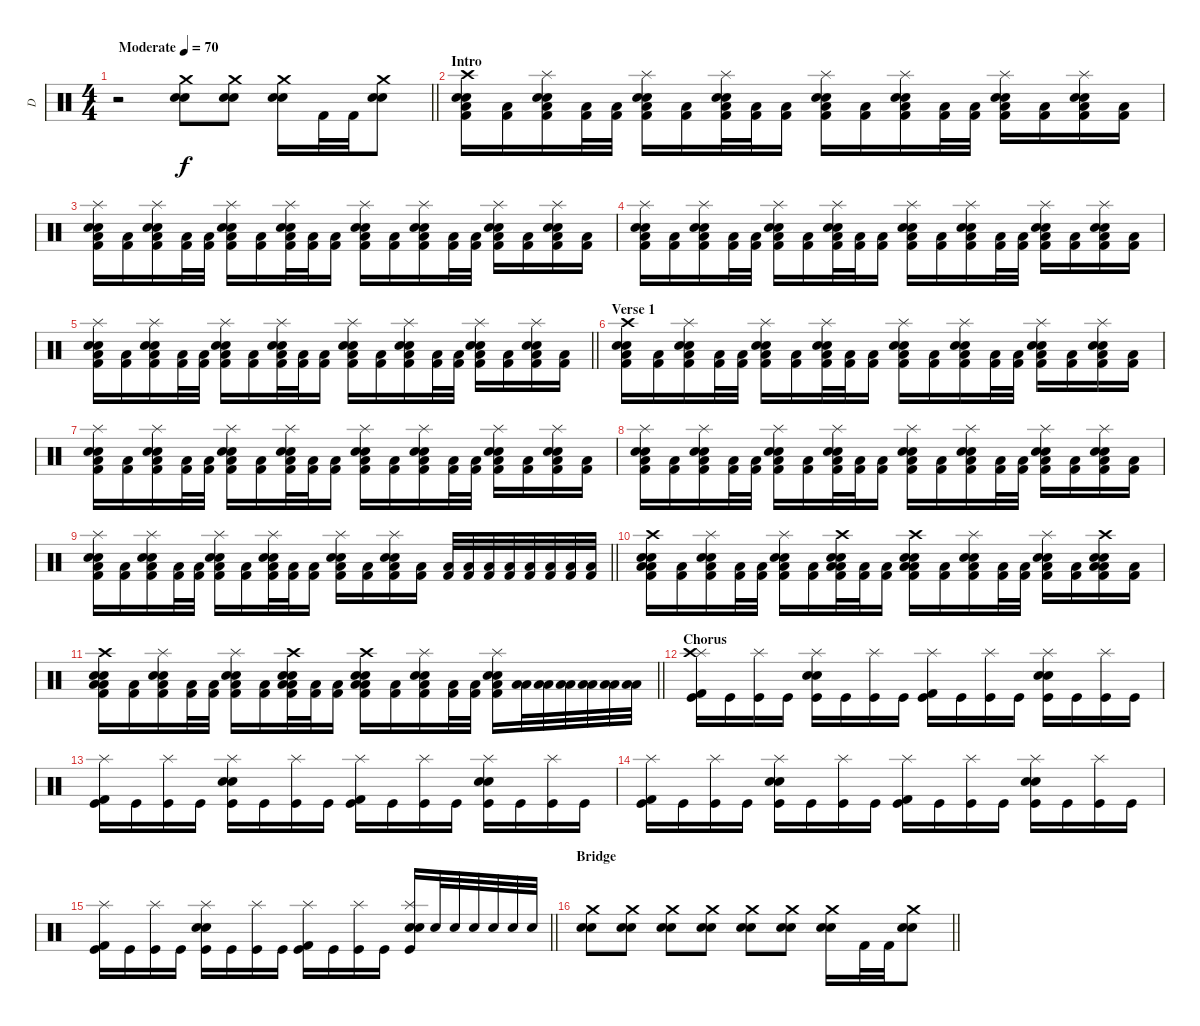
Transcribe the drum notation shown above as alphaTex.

\track ("D" "D") {instrument percussion}
\staff {score}
\articulation defaults
\ts (4 4)
\tempo (70 "Moderate")
\clef neutral
\barLineRight lightlight
\ks c
r.2{dy f} ("Crash medium (hit)" "Electric Snare (hit)" "Electric Snare (hit)").8 ("Crash medium (hit)" "Electric Snare (hit)" "Electric Snare (hit)").8 ("Crash medium (hit)" "Electric Snare (hit)" "Electric Snare (hit)").16 "Kick (hit) 2".32 "Kick (hit) 2".32 ("Crash medium (hit)" "Electric Snare (hit)" "Electric Snare (hit)").8 |
\section ("" "Intro")
("Crash high (hit)" "Electric Snare (hit)" "Electric Snare (hit)" "Kick (hit) 2" "Low Floor Tom (hit)").16 ("Kick (hit) 2" "Low Floor Tom (hit)").16 ("Splash (hit)" "Electric Snare (hit)" "Electric Snare (hit)" "Kick (hit) 2" "Low Floor Tom (hit)").16 ("Kick (hit) 2" "Low Floor Tom (hit)").32 ("Kick (hit) 2" "Low Floor Tom (hit)").32 ("Splash (hit)" "Electric Snare (hit)" "Electric Snare (hit)" "Kick (hit) 2" "Low Floor Tom (hit)").16 ("Kick (hit) 2" "Low Floor Tom (hit)").16 ("Splash (hit)" "Electric Snare (hit)" "Electric Snare (hit)" "Kick (hit) 2" "Low Floor Tom (hit)").32 ("Kick (hit) 2" "Low Floor Tom (hit)").32 ("Kick (hit) 2" "Low Floor Tom (hit)").16 ("Splash (hit)" "Electric Snare (hit)" "Electric Snare (hit)" "Kick (hit) 2" "Low Floor Tom (hit)").16 ("Kick (hit) 2" "Low Floor Tom (hit)").16 ("Splash (hit)" "Electric Snare (hit)" "Electric Snare (hit)" "Kick (hit) 2" "Low Floor Tom (hit)").16 ("Kick (hit) 2" "Low Floor Tom (hit)").32 ("Kick (hit) 2" "Low Floor Tom (hit)").32 ("Splash (hit)" "Electric Snare (hit)" "Electric Snare (hit)" "Kick (hit) 2" "Low Floor Tom (hit)").16 ("Kick (hit) 2" "Low Floor Tom (hit)").16 ("Splash (hit)" "Electric Snare (hit)" "Electric Snare (hit)" "Kick (hit) 2" "Low Floor Tom (hit)").16 ("Kick (hit) 2" "Low Floor Tom (hit)").16 |
("Splash (hit)" "Electric Snare (hit)" "Electric Snare (hit)" "Kick (hit) 2" "Low Floor Tom (hit)").16 ("Kick (hit) 2" "Low Floor Tom (hit)").16 ("Splash (hit)" "Electric Snare (hit)" "Electric Snare (hit)" "Kick (hit) 2" "Low Floor Tom (hit)").16 ("Kick (hit) 2" "Low Floor Tom (hit)").32 ("Kick (hit) 2" "Low Floor Tom (hit)").32 ("Splash (hit)" "Electric Snare (hit)" "Electric Snare (hit)" "Kick (hit) 2" "Low Floor Tom (hit)").16 ("Kick (hit) 2" "Low Floor Tom (hit)").16 ("Splash (hit)" "Electric Snare (hit)" "Electric Snare (hit)" "Kick (hit) 2" "Low Floor Tom (hit)").32 ("Kick (hit) 2" "Low Floor Tom (hit)").32 ("Kick (hit) 2" "Low Floor Tom (hit)").16 ("Splash (hit)" "Electric Snare (hit)" "Electric Snare (hit)" "Kick (hit) 2" "Low Floor Tom (hit)").16 ("Kick (hit) 2" "Low Floor Tom (hit)").16 ("Splash (hit)" "Electric Snare (hit)" "Electric Snare (hit)" "Kick (hit) 2" "Low Floor Tom (hit)").16 ("Kick (hit) 2" "Low Floor Tom (hit)").32 ("Kick (hit) 2" "Low Floor Tom (hit)").32 ("Splash (hit)" "Electric Snare (hit)" "Electric Snare (hit)" "Kick (hit) 2" "Low Floor Tom (hit)").16 ("Kick (hit) 2" "Low Floor Tom (hit)").16 ("Splash (hit)" "Electric Snare (hit)" "Electric Snare (hit)" "Kick (hit) 2" "Low Floor Tom (hit)").16 ("Kick (hit) 2" "Low Floor Tom (hit)").16 |
("Splash (hit)" "Electric Snare (hit)" "Electric Snare (hit)" "Kick (hit) 2" "Low Floor Tom (hit)").16 ("Kick (hit) 2" "Low Floor Tom (hit)").16 ("Splash (hit)" "Electric Snare (hit)" "Electric Snare (hit)" "Kick (hit) 2" "Low Floor Tom (hit)").16 ("Kick (hit) 2" "Low Floor Tom (hit)").32 ("Kick (hit) 2" "Low Floor Tom (hit)").32 ("Splash (hit)" "Electric Snare (hit)" "Electric Snare (hit)" "Kick (hit) 2" "Low Floor Tom (hit)").16 ("Kick (hit) 2" "Low Floor Tom (hit)").16 ("Splash (hit)" "Electric Snare (hit)" "Electric Snare (hit)" "Kick (hit) 2" "Low Floor Tom (hit)").32 ("Kick (hit) 2" "Low Floor Tom (hit)").32 ("Kick (hit) 2" "Low Floor Tom (hit)").16 ("Splash (hit)" "Electric Snare (hit)" "Electric Snare (hit)" "Kick (hit) 2" "Low Floor Tom (hit)").16 ("Kick (hit) 2" "Low Floor Tom (hit)").16 ("Splash (hit)" "Electric Snare (hit)" "Electric Snare (hit)" "Kick (hit) 2" "Low Floor Tom (hit)").16 ("Kick (hit) 2" "Low Floor Tom (hit)").32 ("Kick (hit) 2" "Low Floor Tom (hit)").32 ("Splash (hit)" "Electric Snare (hit)" "Electric Snare (hit)" "Kick (hit) 2" "Low Floor Tom (hit)").16 ("Kick (hit) 2" "Low Floor Tom (hit)").16 ("Splash (hit)" "Electric Snare (hit)" "Electric Snare (hit)" "Kick (hit) 2" "Low Floor Tom (hit)").16 ("Kick (hit) 2" "Low Floor Tom (hit)").16 |
\barLineRight lightlight
("Splash (hit)" "Electric Snare (hit)" "Electric Snare (hit)" "Kick (hit) 2" "Low Floor Tom (hit)").16 ("Kick (hit) 2" "Low Floor Tom (hit)").16 ("Splash (hit)" "Electric Snare (hit)" "Electric Snare (hit)" "Kick (hit) 2" "Low Floor Tom (hit)").16 ("Kick (hit) 2" "Low Floor Tom (hit)").32 ("Kick (hit) 2" "Low Floor Tom (hit)").32 ("Splash (hit)" "Electric Snare (hit)" "Electric Snare (hit)" "Kick (hit) 2" "Low Floor Tom (hit)").16 ("Kick (hit) 2" "Low Floor Tom (hit)").16 ("Splash (hit)" "Electric Snare (hit)" "Electric Snare (hit)" "Kick (hit) 2" "Low Floor Tom (hit)").32 ("Kick (hit) 2" "Low Floor Tom (hit)").32 ("Kick (hit) 2" "Low Floor Tom (hit)").16 ("Splash (hit)" "Electric Snare (hit)" "Electric Snare (hit)" "Kick (hit) 2" "Low Floor Tom (hit)").16 ("Kick (hit) 2" "Low Floor Tom (hit)").16 ("Splash (hit)" "Electric Snare (hit)" "Electric Snare (hit)" "Kick (hit) 2" "Low Floor Tom (hit)").16 ("Kick (hit) 2" "Low Floor Tom (hit)").32 ("Kick (hit) 2" "Low Floor Tom (hit)").32 ("Splash (hit)" "Electric Snare (hit)" "Electric Snare (hit)" "Kick (hit) 2" "Low Floor Tom (hit)").16 ("Kick (hit) 2" "Low Floor Tom (hit)").16 ("Splash (hit)" "Electric Snare (hit)" "Electric Snare (hit)" "Kick (hit) 2" "Low Floor Tom (hit)").16 ("Kick (hit) 2" "Low Floor Tom (hit)").16 |
\section ("" "Verse 1")
("Crash high (hit)" "Electric Snare (hit)" "Electric Snare (hit)" "Kick (hit) 2" "Low Floor Tom (hit)").16 ("Kick (hit) 2" "Low Floor Tom (hit)").16 ("Splash (hit)" "Electric Snare (hit)" "Electric Snare (hit)" "Kick (hit) 2" "Low Floor Tom (hit)").16 ("Kick (hit) 2" "Low Floor Tom (hit)").32 ("Kick (hit) 2" "Low Floor Tom (hit)").32 ("Splash (hit)" "Electric Snare (hit)" "Electric Snare (hit)" "Kick (hit) 2" "Low Floor Tom (hit)").16 ("Kick (hit) 2" "Low Floor Tom (hit)").16 ("Splash (hit)" "Electric Snare (hit)" "Electric Snare (hit)" "Kick (hit) 2" "Low Floor Tom (hit)").32 ("Kick (hit) 2" "Low Floor Tom (hit)").32 ("Kick (hit) 2" "Low Floor Tom (hit)").16 ("Splash (hit)" "Electric Snare (hit)" "Electric Snare (hit)" "Kick (hit) 2" "Low Floor Tom (hit)").16 ("Kick (hit) 2" "Low Floor Tom (hit)").16 ("Splash (hit)" "Electric Snare (hit)" "Electric Snare (hit)" "Kick (hit) 2" "Low Floor Tom (hit)").16 ("Kick (hit) 2" "Low Floor Tom (hit)").32 ("Kick (hit) 2" "Low Floor Tom (hit)").32 ("Splash (hit)" "Electric Snare (hit)" "Electric Snare (hit)" "Kick (hit) 2" "Low Floor Tom (hit)").16 ("Kick (hit) 2" "Low Floor Tom (hit)").16 ("Splash (hit)" "Electric Snare (hit)" "Electric Snare (hit)" "Kick (hit) 2" "Low Floor Tom (hit)").16 ("Kick (hit) 2" "Low Floor Tom (hit)").16 |
("Splash (hit)" "Electric Snare (hit)" "Electric Snare (hit)" "Kick (hit) 2" "Low Floor Tom (hit)").16 ("Kick (hit) 2" "Low Floor Tom (hit)").16 ("Splash (hit)" "Electric Snare (hit)" "Electric Snare (hit)" "Kick (hit) 2" "Low Floor Tom (hit)").16 ("Kick (hit) 2" "Low Floor Tom (hit)").32 ("Kick (hit) 2" "Low Floor Tom (hit)").32 ("Splash (hit)" "Electric Snare (hit)" "Electric Snare (hit)" "Kick (hit) 2" "Low Floor Tom (hit)").16 ("Kick (hit) 2" "Low Floor Tom (hit)").16 ("Splash (hit)" "Electric Snare (hit)" "Electric Snare (hit)" "Kick (hit) 2" "Low Floor Tom (hit)").32 ("Kick (hit) 2" "Low Floor Tom (hit)").32 ("Kick (hit) 2" "Low Floor Tom (hit)").16 ("Splash (hit)" "Electric Snare (hit)" "Electric Snare (hit)" "Kick (hit) 2" "Low Floor Tom (hit)").16 ("Kick (hit) 2" "Low Floor Tom (hit)").16 ("Splash (hit)" "Electric Snare (hit)" "Electric Snare (hit)" "Kick (hit) 2" "Low Floor Tom (hit)").16 ("Kick (hit) 2" "Low Floor Tom (hit)").32 ("Kick (hit) 2" "Low Floor Tom (hit)").32 ("Splash (hit)" "Electric Snare (hit)" "Electric Snare (hit)" "Kick (hit) 2" "Low Floor Tom (hit)").16 ("Kick (hit) 2" "Low Floor Tom (hit)").16 ("Splash (hit)" "Electric Snare (hit)" "Electric Snare (hit)" "Kick (hit) 2" "Low Floor Tom (hit)").16 ("Kick (hit) 2" "Low Floor Tom (hit)").16 |
("Splash (hit)" "Electric Snare (hit)" "Electric Snare (hit)" "Kick (hit) 2" "Low Floor Tom (hit)").16 ("Kick (hit) 2" "Low Floor Tom (hit)").16 ("Splash (hit)" "Electric Snare (hit)" "Electric Snare (hit)" "Kick (hit) 2" "Low Floor Tom (hit)").16 ("Kick (hit) 2" "Low Floor Tom (hit)").32 ("Kick (hit) 2" "Low Floor Tom (hit)").32 ("Splash (hit)" "Electric Snare (hit)" "Electric Snare (hit)" "Kick (hit) 2" "Low Floor Tom (hit)").16 ("Kick (hit) 2" "Low Floor Tom (hit)").16 ("Splash (hit)" "Electric Snare (hit)" "Electric Snare (hit)" "Kick (hit) 2" "Low Floor Tom (hit)").32 ("Kick (hit) 2" "Low Floor Tom (hit)").32 ("Kick (hit) 2" "Low Floor Tom (hit)").16 ("Splash (hit)" "Electric Snare (hit)" "Electric Snare (hit)" "Kick (hit) 2" "Low Floor Tom (hit)").16 ("Kick (hit) 2" "Low Floor Tom (hit)").16 ("Splash (hit)" "Electric Snare (hit)" "Electric Snare (hit)" "Kick (hit) 2" "Low Floor Tom (hit)").16 ("Kick (hit) 2" "Low Floor Tom (hit)").32 ("Kick (hit) 2" "Low Floor Tom (hit)").32 ("Splash (hit)" "Electric Snare (hit)" "Electric Snare (hit)" "Kick (hit) 2" "Low Floor Tom (hit)").16 ("Kick (hit) 2" "Low Floor Tom (hit)").16 ("Splash (hit)" "Electric Snare (hit)" "Electric Snare (hit)" "Kick (hit) 2" "Low Floor Tom (hit)").16 ("Kick (hit) 2" "Low Floor Tom (hit)").16 |
\barLineRight lightlight
("Splash (hit)" "Electric Snare (hit)" "Electric Snare (hit)" "Kick (hit) 2" "Low Floor Tom (hit)").16 ("Kick (hit) 2" "Low Floor Tom (hit)").16 ("Splash (hit)" "Electric Snare (hit)" "Electric Snare (hit)" "Kick (hit) 2" "Low Floor Tom (hit)").16 ("Kick (hit) 2" "Low Floor Tom (hit)").32 ("Kick (hit) 2" "Low Floor Tom (hit)").32 ("Splash (hit)" "Electric Snare (hit)" "Electric Snare (hit)" "Kick (hit) 2" "Low Floor Tom (hit)").16 ("Kick (hit) 2" "Low Floor Tom (hit)").16 ("Splash (hit)" "Electric Snare (hit)" "Electric Snare (hit)" "Kick (hit) 2" "Low Floor Tom (hit)").32 ("Kick (hit) 2" "Low Floor Tom (hit)").32 ("Kick (hit) 2" "Low Floor Tom (hit)").16 ("Splash (hit)" "Electric Snare (hit)" "Electric Snare (hit)" "Kick (hit) 2" "Low Floor Tom (hit)").16 ("Kick (hit) 2" "Low Floor Tom (hit)").16 ("Splash (hit)" "Electric Snare (hit)" "Electric Snare (hit)" "Kick (hit) 2" "Low Floor Tom (hit)").16 ("Kick (hit) 2" "Low Floor Tom (hit)").16 ("Kick (hit) 2" "Low Floor Tom (hit)").32 ("Kick (hit) 2" "Low Floor Tom (hit)").32 ("Kick (hit) 2" "Low Floor Tom (hit)").32 ("Kick (hit) 2" "Low Floor Tom (hit)").32 ("Kick (hit) 2" "Low Floor Tom (hit)").32 ("Kick (hit) 2" "Low Floor Tom (hit)").32 ("Kick (hit) 2" "Low Floor Tom (hit)").32 ("Kick (hit) 2" "Low Floor Tom (hit)").32 |
("Crash high (hit)" "Electric Snare (hit)" "Electric Snare (hit)" "Low Tom (hit)" "Kick (hit) 2" "Low Floor Tom (hit)").16 ("Kick (hit) 2" "Low Floor Tom (hit)").16 ("Splash (hit)" "Electric Snare (hit)" "Electric Snare (hit)" "Kick (hit) 2" "Low Floor Tom (hit)").16 ("Kick (hit) 2" "Low Floor Tom (hit)").32 ("Kick (hit) 2" "Low Floor Tom (hit)").32 ("Splash (hit)" "Electric Snare (hit)" "Electric Snare (hit)" "Kick (hit) 2" "Low Floor Tom (hit)").16 ("Kick (hit) 2" "Low Floor Tom (hit)").16 ("Crash high (hit)" "Electric Snare (hit)" "Electric Snare (hit)" "Low Tom (hit)" "Kick (hit) 2" "Low Floor Tom (hit)").32 ("Kick (hit) 2" "Low Floor Tom (hit)").32 ("Kick (hit) 2" "Low Floor Tom (hit)").16 ("Crash high (hit)" "Electric Snare (hit)" "Electric Snare (hit)" "Low Tom (hit)" "Kick (hit) 2" "Low Floor Tom (hit)").16 ("Kick (hit) 2" "Low Floor Tom (hit)").16 ("Splash (hit)" "Electric Snare (hit)" "Electric Snare (hit)" "Kick (hit) 2" "Low Floor Tom (hit)").16 ("Kick (hit) 2" "Low Floor Tom (hit)").32 ("Kick (hit) 2" "Low Floor Tom (hit)").32 ("Splash (hit)" "Electric Snare (hit)" "Electric Snare (hit)" "Kick (hit) 2" "Low Floor Tom (hit)").16 ("Kick (hit) 2" "Low Floor Tom (hit)").16 ("Crash high (hit)" "Electric Snare (hit)" "Electric Snare (hit)" "Low Tom (hit)" "Kick (hit) 2" "Low Floor Tom (hit)").16 ("Kick (hit) 2" "Low Floor Tom (hit)").16 |
\barLineRight lightlight
("Crash high (hit)" "Electric Snare (hit)" "Electric Snare (hit)" "Low Tom (hit)" "Kick (hit) 2" "Low Floor Tom (hit)").16 ("Kick (hit) 2" "Low Floor Tom (hit)").16 ("Splash (hit)" "Electric Snare (hit)" "Electric Snare (hit)" "Kick (hit) 2" "Low Floor Tom (hit)").16 ("Kick (hit) 2" "Low Floor Tom (hit)").32 ("Kick (hit) 2" "Low Floor Tom (hit)").32 ("Splash (hit)" "Electric Snare (hit)" "Electric Snare (hit)" "Kick (hit) 2" "Low Floor Tom (hit)").16 ("Kick (hit) 2" "Low Floor Tom (hit)").16 ("Crash high (hit)" "Electric Snare (hit)" "Electric Snare (hit)" "Low Tom (hit)" "Kick (hit) 2" "Low Floor Tom (hit)").32 ("Kick (hit) 2" "Low Floor Tom (hit)").32 ("Kick (hit) 2" "Low Floor Tom (hit)").16 ("Crash high (hit)" "Electric Snare (hit)" "Electric Snare (hit)" "Low Tom (hit)" "Kick (hit) 2" "Low Floor Tom (hit)").16 ("Kick (hit) 2" "Low Floor Tom (hit)").16 ("Splash (hit)" "Electric Snare (hit)" "Electric Snare (hit)" "Kick (hit) 2" "Low Floor Tom (hit)").16 ("Kick (hit) 2" "Low Floor Tom (hit)").32 ("Kick (hit) 2" "Low Floor Tom (hit)").32 ("Splash (hit)" "Electric Snare (hit)" "Electric Snare (hit)" "Kick (hit) 2" "Low Floor Tom (hit)").16 ("Low Tom (hit)" "Low Floor Tom (hit)").32 ("Low Tom (hit)" "Low Floor Tom (hit)").32 ("Low Tom (hit)" "Low Floor Tom (hit)").32 ("Low Tom (hit)" "Low Floor Tom (hit)").32 ("Low Tom (hit)" "Low Floor Tom (hit)").32 ("Low Tom (hit)" "Low Floor Tom (hit)").32 |
\section ("" "Chorus")
("Splash (hit)" "Crash high (hit)" "Kick (hit) 2" "Kick (hit)").16 "Kick (hit)".16 ("Splash (hit)" "Kick (hit)").16 "Kick (hit)".16 ("Splash (hit)" "Electric Snare (hit)" "Electric Snare (hit)" "Kick (hit)").16 "Kick (hit)".16 ("Splash (hit)" "Kick (hit)").16 "Kick (hit)".16 ("Splash (hit)" "Kick (hit) 2" "Kick (hit)").16 "Kick (hit)".16 ("Splash (hit)" "Kick (hit)").16 "Kick (hit)".16 ("Splash (hit)" "Electric Snare (hit)" "Electric Snare (hit)" "Kick (hit)").16 "Kick (hit)".16 ("Splash (hit)" "Kick (hit)").16 "Kick (hit)".16 |
("Splash (hit)" "Kick (hit) 2" "Kick (hit)").16 "Kick (hit)".16 ("Splash (hit)" "Kick (hit)").16 "Kick (hit)".16 ("Splash (hit)" "Electric Snare (hit)" "Electric Snare (hit)" "Kick (hit)").16 "Kick (hit)".16 ("Splash (hit)" "Kick (hit)").16 "Kick (hit)".16 ("Splash (hit)" "Kick (hit) 2" "Kick (hit)").16 "Kick (hit)".16 ("Splash (hit)" "Kick (hit)").16 "Kick (hit)".16 ("Splash (hit)" "Electric Snare (hit)" "Electric Snare (hit)" "Kick (hit)").16 "Kick (hit)".16 ("Splash (hit)" "Kick (hit)").16 "Kick (hit)".16 |
("Splash (hit)" "Kick (hit) 2" "Kick (hit)").16 "Kick (hit)".16 ("Splash (hit)" "Kick (hit)").16 "Kick (hit)".16 ("Splash (hit)" "Electric Snare (hit)" "Electric Snare (hit)" "Kick (hit)").16 "Kick (hit)".16 ("Splash (hit)" "Kick (hit)").16 "Kick (hit)".16 ("Splash (hit)" "Kick (hit) 2" "Kick (hit)").16 "Kick (hit)".16 ("Splash (hit)" "Kick (hit)").16 "Kick (hit)".16 ("Splash (hit)" "Electric Snare (hit)" "Electric Snare (hit)" "Kick (hit)").16 "Kick (hit)".16 ("Splash (hit)" "Kick (hit)").16 "Kick (hit)".16 |
\barLineRight lightlight
("Splash (hit)" "Kick (hit) 2" "Kick (hit)").16 "Kick (hit)".16 ("Splash (hit)" "Kick (hit)").16 "Kick (hit)".16 ("Splash (hit)" "Electric Snare (hit)" "Electric Snare (hit)" "Kick (hit)").16 "Kick (hit)".16 ("Splash (hit)" "Kick (hit)").16 "Kick (hit)".16 ("Splash (hit)" "Kick (hit) 2" "Kick (hit)").16 "Kick (hit)".16 ("Splash (hit)" "Kick (hit)").16 "Kick (hit)".16 ("Splash (hit)" "Electric Snare (hit)" "Electric Snare (hit)" "Kick (hit)").16 "Electric Snare (hit)".32 "Electric Snare (hit)".32 "Electric Snare (hit)".32 "Electric Snare (hit)".32 "Electric Snare (hit)".32 "Electric Snare (hit)".32 |
\section ("" "Bridge")
\barLineRight lightlight
("Crash medium (hit)" "Electric Snare (hit)" "Electric Snare (hit)").8 ("Crash medium (hit)" "Electric Snare (hit)" "Electric Snare (hit)").8 ("Crash medium (hit)" "Electric Snare (hit)" "Electric Snare (hit)").8 ("Crash medium (hit)" "Electric Snare (hit)" "Electric Snare (hit)").8 ("Crash medium (hit)" "Electric Snare (hit)" "Electric Snare (hit)").8 ("Crash medium (hit)" "Electric Snare (hit)" "Electric Snare (hit)").8 ("Crash medium (hit)" "Electric Snare (hit)" "Electric Snare (hit)").16 "Kick (hit) 2".32 "Kick (hit) 2".32 ("Crash medium (hit)" "Electric Snare (hit)" "Electric Snare (hit)").8
